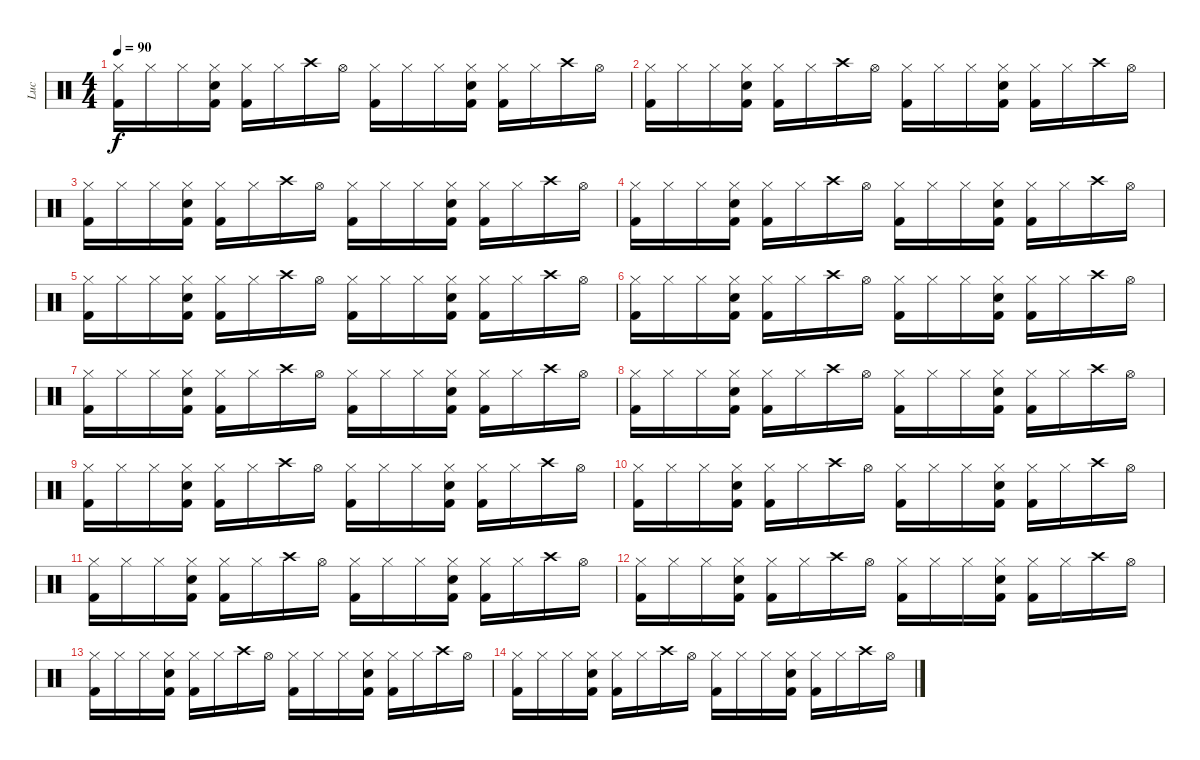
\track ("Luc" "Luc") {instrument percussion}
\staff {score}
\articulation defaults
\ts (4 4)
\tempo 90
\clef neutral
\ks c
("Hi-Hat (closed)" "Kick (hit) 2").16{dy f} "Hi-Hat (closed)".16 "Hi-Hat (closed)".16 ("Hi-Hat (closed)" "Snare (hit) 2" "Kick (hit) 2").16 ("Hi-Hat (closed)" "Kick (hit) 2").16 "Hi-Hat (closed)".16 "Crash high (hit)".16 "Hi-Hat (open)".16 ("Hi-Hat (closed)" "Kick (hit) 2").16 "Hi-Hat (closed)".16 "Hi-Hat (closed)".16 ("Hi-Hat (closed)" "Snare (hit) 2" "Kick (hit) 2").16 ("Hi-Hat (closed)" "Kick (hit) 2").16 "Hi-Hat (closed)".16 "Crash high (hit)".16 "Hi-Hat (open)".16 |
("Hi-Hat (closed)" "Kick (hit) 2").16 "Hi-Hat (closed)".16 "Hi-Hat (closed)".16 ("Hi-Hat (closed)" "Snare (hit) 2" "Kick (hit) 2").16 ("Hi-Hat (closed)" "Kick (hit) 2").16 "Hi-Hat (closed)".16 "Crash high (hit)".16 "Hi-Hat (open)".16 ("Hi-Hat (closed)" "Kick (hit) 2").16 "Hi-Hat (closed)".16 "Hi-Hat (closed)".16 ("Hi-Hat (closed)" "Snare (hit) 2" "Kick (hit) 2").16 ("Hi-Hat (closed)" "Kick (hit) 2").16 "Hi-Hat (closed)".16 "Crash high (hit)".16 "Hi-Hat (open)".16 |
("Hi-Hat (closed)" "Kick (hit) 2").16 "Hi-Hat (closed)".16 "Hi-Hat (closed)".16 ("Hi-Hat (closed)" "Snare (hit) 2" "Kick (hit) 2").16 ("Hi-Hat (closed)" "Kick (hit) 2").16 "Hi-Hat (closed)".16 "Crash high (hit)".16 "Hi-Hat (open)".16 ("Hi-Hat (closed)" "Kick (hit) 2").16 "Hi-Hat (closed)".16 "Hi-Hat (closed)".16 ("Hi-Hat (closed)" "Snare (hit) 2" "Kick (hit) 2").16 ("Hi-Hat (closed)" "Kick (hit) 2").16 "Hi-Hat (closed)".16 "Crash high (hit)".16 "Hi-Hat (open)".16 |
("Hi-Hat (closed)" "Kick (hit) 2").16 "Hi-Hat (closed)".16 "Hi-Hat (closed)".16 ("Hi-Hat (closed)" "Snare (hit) 2" "Kick (hit) 2").16 ("Hi-Hat (closed)" "Kick (hit) 2").16 "Hi-Hat (closed)".16 "Crash high (hit)".16 "Hi-Hat (open)".16 ("Hi-Hat (closed)" "Kick (hit) 2").16 "Hi-Hat (closed)".16 "Hi-Hat (closed)".16 ("Hi-Hat (closed)" "Snare (hit) 2" "Kick (hit) 2").16 ("Hi-Hat (closed)" "Kick (hit) 2").16 "Hi-Hat (closed)".16 "Crash high (hit)".16 "Hi-Hat (open)".16 |
("Hi-Hat (closed)" "Kick (hit) 2").16 "Hi-Hat (closed)".16 "Hi-Hat (closed)".16 ("Hi-Hat (closed)" "Snare (hit) 2" "Kick (hit) 2").16 ("Hi-Hat (closed)" "Kick (hit) 2").16 "Hi-Hat (closed)".16 "Crash high (hit)".16 "Hi-Hat (open)".16 ("Hi-Hat (closed)" "Kick (hit) 2").16 "Hi-Hat (closed)".16 "Hi-Hat (closed)".16 ("Hi-Hat (closed)" "Snare (hit) 2" "Kick (hit) 2").16 ("Hi-Hat (closed)" "Kick (hit) 2").16 "Hi-Hat (closed)".16 "Crash high (hit)".16 "Hi-Hat (open)".16 |
("Hi-Hat (closed)" "Kick (hit) 2").16 "Hi-Hat (closed)".16 "Hi-Hat (closed)".16 ("Hi-Hat (closed)" "Snare (hit) 2" "Kick (hit) 2").16 ("Hi-Hat (closed)" "Kick (hit) 2").16 "Hi-Hat (closed)".16 "Crash high (hit)".16 "Hi-Hat (open)".16 ("Hi-Hat (closed)" "Kick (hit) 2").16 "Hi-Hat (closed)".16 "Hi-Hat (closed)".16 ("Hi-Hat (closed)" "Snare (hit) 2" "Kick (hit) 2").16 ("Hi-Hat (closed)" "Kick (hit) 2").16 "Hi-Hat (closed)".16 "Crash high (hit)".16 "Hi-Hat (open)".16 |
("Hi-Hat (closed)" "Kick (hit) 2").16 "Hi-Hat (closed)".16 "Hi-Hat (closed)".16 ("Hi-Hat (closed)" "Snare (hit) 2" "Kick (hit) 2").16 ("Hi-Hat (closed)" "Kick (hit) 2").16 "Hi-Hat (closed)".16 "Crash high (hit)".16 "Hi-Hat (open)".16 ("Hi-Hat (closed)" "Kick (hit) 2").16 "Hi-Hat (closed)".16 "Hi-Hat (closed)".16 ("Hi-Hat (closed)" "Snare (hit) 2" "Kick (hit) 2").16 ("Hi-Hat (closed)" "Kick (hit) 2").16 "Hi-Hat (closed)".16 "Crash high (hit)".16 "Hi-Hat (open)".16 |
("Hi-Hat (closed)" "Kick (hit) 2").16 "Hi-Hat (closed)".16 "Hi-Hat (closed)".16 ("Hi-Hat (closed)" "Snare (hit) 2" "Kick (hit) 2").16 ("Hi-Hat (closed)" "Kick (hit) 2").16 "Hi-Hat (closed)".16 "Crash high (hit)".16 "Hi-Hat (open)".16 ("Hi-Hat (closed)" "Kick (hit) 2").16 "Hi-Hat (closed)".16 "Hi-Hat (closed)".16 ("Hi-Hat (closed)" "Snare (hit) 2" "Kick (hit) 2").16 ("Hi-Hat (closed)" "Kick (hit) 2").16 "Hi-Hat (closed)".16 "Crash high (hit)".16 "Hi-Hat (open)".16 |
("Hi-Hat (closed)" "Kick (hit) 2").16 "Hi-Hat (closed)".16 "Hi-Hat (closed)".16 ("Hi-Hat (closed)" "Snare (hit) 2" "Kick (hit) 2").16 ("Hi-Hat (closed)" "Kick (hit) 2").16 "Hi-Hat (closed)".16 "Crash high (hit)".16 "Hi-Hat (open)".16 ("Hi-Hat (closed)" "Kick (hit) 2").16 "Hi-Hat (closed)".16 "Hi-Hat (closed)".16 ("Hi-Hat (closed)" "Snare (hit) 2" "Kick (hit) 2").16 ("Hi-Hat (closed)" "Kick (hit) 2").16 "Hi-Hat (closed)".16 "Crash high (hit)".16 "Hi-Hat (open)".16 |
("Hi-Hat (closed)" "Kick (hit) 2").16 "Hi-Hat (closed)".16 "Hi-Hat (closed)".16 ("Hi-Hat (closed)" "Snare (hit) 2" "Kick (hit) 2").16 ("Hi-Hat (closed)" "Kick (hit) 2").16 "Hi-Hat (closed)".16 "Crash high (hit)".16 "Hi-Hat (open)".16 ("Hi-Hat (closed)" "Kick (hit) 2").16 "Hi-Hat (closed)".16 "Hi-Hat (closed)".16 ("Hi-Hat (closed)" "Snare (hit) 2" "Kick (hit) 2").16 ("Hi-Hat (closed)" "Kick (hit) 2").16 "Hi-Hat (closed)".16 "Crash high (hit)".16 "Hi-Hat (open)".16 |
("Hi-Hat (closed)" "Kick (hit) 2").16 "Hi-Hat (closed)".16 "Hi-Hat (closed)".16 ("Hi-Hat (closed)" "Snare (hit) 2" "Kick (hit) 2").16 ("Hi-Hat (closed)" "Kick (hit) 2").16 "Hi-Hat (closed)".16 "Crash high (hit)".16 "Hi-Hat (open)".16 ("Hi-Hat (closed)" "Kick (hit) 2").16 "Hi-Hat (closed)".16 "Hi-Hat (closed)".16 ("Hi-Hat (closed)" "Snare (hit) 2" "Kick (hit) 2").16 ("Hi-Hat (closed)" "Kick (hit) 2").16 "Hi-Hat (closed)".16 "Crash high (hit)".16 "Hi-Hat (open)".16 |
("Hi-Hat (closed)" "Kick (hit) 2").16 "Hi-Hat (closed)".16 "Hi-Hat (closed)".16 ("Hi-Hat (closed)" "Snare (hit) 2" "Kick (hit) 2").16 ("Hi-Hat (closed)" "Kick (hit) 2").16 "Hi-Hat (closed)".16 "Crash high (hit)".16 "Hi-Hat (open)".16 ("Hi-Hat (closed)" "Kick (hit) 2").16 "Hi-Hat (closed)".16 "Hi-Hat (closed)".16 ("Hi-Hat (closed)" "Snare (hit) 2" "Kick (hit) 2").16 ("Hi-Hat (closed)" "Kick (hit) 2").16 "Hi-Hat (closed)".16 "Crash high (hit)".16 "Hi-Hat (open)".16 |
("Hi-Hat (closed)" "Kick (hit) 2").16 "Hi-Hat (closed)".16 "Hi-Hat (closed)".16 ("Hi-Hat (closed)" "Snare (hit) 2" "Kick (hit) 2").16 ("Hi-Hat (closed)" "Kick (hit) 2").16 "Hi-Hat (closed)".16 "Crash high (hit)".16 "Hi-Hat (open)".16 ("Hi-Hat (closed)" "Kick (hit) 2").16 "Hi-Hat (closed)".16 "Hi-Hat (closed)".16 ("Hi-Hat (closed)" "Snare (hit) 2" "Kick (hit) 2").16 ("Hi-Hat (closed)" "Kick (hit) 2").16 "Hi-Hat (closed)".16 "Crash high (hit)".16 "Hi-Hat (open)".16 |
("Hi-Hat (closed)" "Kick (hit) 2").16 "Hi-Hat (closed)".16 "Hi-Hat (closed)".16 ("Hi-Hat (closed)" "Snare (hit) 2" "Kick (hit) 2").16 ("Hi-Hat (closed)" "Kick (hit) 2").16 "Hi-Hat (closed)".16 "Crash high (hit)".16 "Hi-Hat (open)".16 ("Hi-Hat (closed)" "Kick (hit) 2").16 "Hi-Hat (closed)".16 "Hi-Hat (closed)".16 ("Hi-Hat (closed)" "Snare (hit) 2" "Kick (hit) 2").16 ("Hi-Hat (closed)" "Kick (hit) 2").16 "Hi-Hat (closed)".16 "Crash high (hit)".16 "Hi-Hat (open)".16
